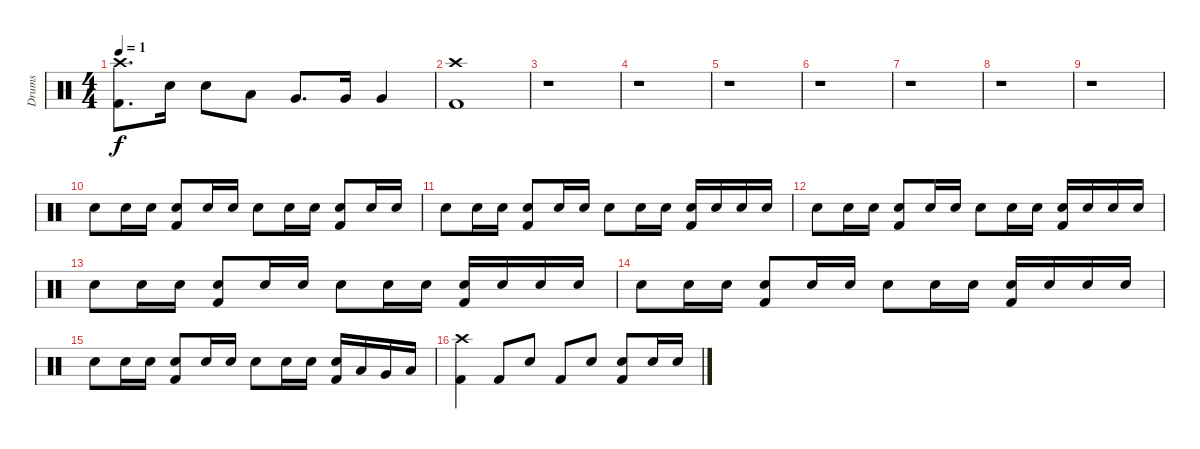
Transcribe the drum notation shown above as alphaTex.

\track ("Drums" "Drums") {instrument percussion}
\staff {score}
\articulation defaults
\ts (4 4)
\tempo 1
\clef neutral
\ks c
("Kick (hit) 2" "Crash high (hit)").8{d dy f} "Snare (hit) 2".16 "Snare (hit) 2".8 "Low Tom (hit)".8 "Very Low Tom (hit)".8{d} "Very Low Tom (hit)".16 "Very Low Tom (hit)".4 |
("Kick (hit) 2" "Crash high (hit)").1 |
r.1 |
r.1 |
r.1 |
r.1 |
r.1 |
r.1 |
r.1 |
"Snare (hit) 2".8 "Snare (hit) 2".16 "Snare (hit) 2".16 ("Snare (hit) 2" "Kick (hit) 2").8 "Snare (hit) 2".16 "Snare (hit) 2".16 "Snare (hit) 2".8 "Snare (hit) 2".16 "Snare (hit) 2".16 ("Snare (hit) 2" "Kick (hit) 2").8 "Snare (hit) 2".16 "Snare (hit) 2".16 |
"Snare (hit) 2".8 "Snare (hit) 2".16 "Snare (hit) 2".16 ("Snare (hit) 2" "Kick (hit) 2").8 "Snare (hit) 2".16 "Snare (hit) 2".16 "Snare (hit) 2".8 "Snare (hit) 2".16 "Snare (hit) 2".16 ("Snare (hit) 2" "Kick (hit) 2").16 "Snare (hit) 2".16 "Snare (hit) 2".16 "Snare (hit) 2".16 |
"Snare (hit) 2".8 "Snare (hit) 2".16 "Snare (hit) 2".16 ("Snare (hit) 2" "Kick (hit) 2").8 "Snare (hit) 2".16 "Snare (hit) 2".16 "Snare (hit) 2".8 "Snare (hit) 2".16 "Snare (hit) 2".16 ("Snare (hit) 2" "Kick (hit) 2").16 "Snare (hit) 2".16 "Snare (hit) 2".16 "Snare (hit) 2".16 |
"Snare (hit) 2".8 "Snare (hit) 2".16 "Snare (hit) 2".16 ("Snare (hit) 2" "Kick (hit) 2").8 "Snare (hit) 2".16 "Snare (hit) 2".16 "Snare (hit) 2".8 "Snare (hit) 2".16 "Snare (hit) 2".16 ("Snare (hit) 2" "Kick (hit) 2").16 "Snare (hit) 2".16 "Snare (hit) 2".16 "Snare (hit) 2".16 |
"Snare (hit) 2".8 "Snare (hit) 2".16 "Snare (hit) 2".16 ("Snare (hit) 2" "Kick (hit) 2").8 "Snare (hit) 2".16 "Snare (hit) 2".16 "Snare (hit) 2".8 "Snare (hit) 2".16 "Snare (hit) 2".16 ("Snare (hit) 2" "Kick (hit) 2").16 "Snare (hit) 2".16 "Snare (hit) 2".16 "Snare (hit) 2".16 |
"Snare (hit) 2".8 "Snare (hit) 2".16 "Snare (hit) 2".16 ("Snare (hit) 2" "Kick (hit) 2").8 "Snare (hit) 2".16 "Snare (hit) 2".16 "Snare (hit) 2".8 "Snare (hit) 2".16 "Snare (hit) 2".16 ("Snare (hit) 2" "Kick (hit) 2").16 "Low Tom (hit)".16 "Very Low Tom (hit)".16 "Low Floor Tom (hit)".16 |
("Kick (hit) 2" "Crash high (hit)").4 "Kick (hit) 2".8 "Snare (hit) 2".8 "Kick (hit) 2".8 "Snare (hit) 2".8 ("Kick (hit) 2" "Snare (hit) 2").8 "Snare (hit) 2".16 "Snare (hit) 2".16
